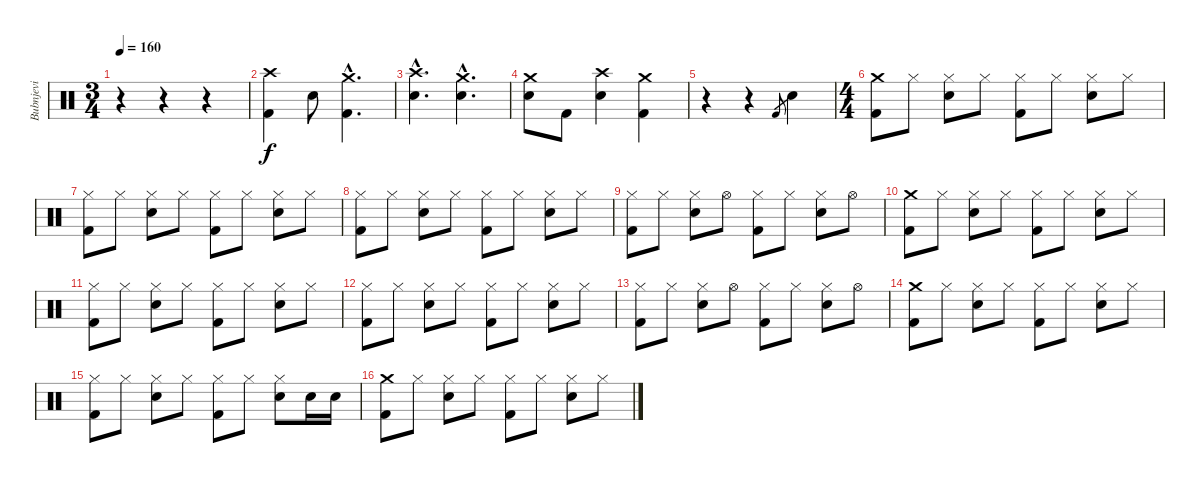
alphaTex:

\track ("Bubnjevi" "Bubnjevi") {instrument percussion}
\staff {score}
\articulation defaults
\ts (3 4)
\tempo 160
\clef neutral
\ks c
r.4{dy f} r.4 r.4 |
("Crash high (hit)" "Kick (hit) 2").4 "Snare (hit) 2".8 ("Crash medium (hit)"{hac} "Kick (hit) 2"{hac}).4{d} |
("Crash high (hit)"{hac} "Snare (hit) 2"{hac}).4{d} ("Crash medium (hit)"{hac} "Snare (hit) 2"{hac}).4{d} |
("Crash medium (hit)" "Snare (hit) 2").8 "Kick (hit) 2".8 ("Crash high (hit)" "Snare (hit) 2").4 ("Crash medium (hit)" "Kick (hit) 2").4 |
r.4 r.4 "Kick (hit) 2".8{gr} "Snare (hit) 2".4 |
\ts (4 4)
("Crash medium (hit)" "Kick (hit) 2").8 "Hi-Hat (closed)".8 ("Hi-Hat (closed)" "Snare (hit) 2").8 "Hi-Hat (closed)".8 ("Hi-Hat (closed)" "Kick (hit) 2").8 "Hi-Hat (closed)".8 ("Hi-Hat (closed)" "Snare (hit) 2").8 "Hi-Hat (closed)".8 |
("Hi-Hat (closed)" "Kick (hit) 2").8 "Hi-Hat (closed)".8 ("Hi-Hat (closed)" "Snare (hit) 2").8 "Hi-Hat (closed)".8 ("Hi-Hat (closed)" "Kick (hit) 2").8 "Hi-Hat (closed)".8 ("Hi-Hat (closed)" "Snare (hit) 2").8 "Hi-Hat (closed)".8 |
("Hi-Hat (closed)" "Kick (hit) 2").8 "Hi-Hat (closed)".8 ("Hi-Hat (closed)" "Snare (hit) 2").8 "Hi-Hat (closed)".8 ("Hi-Hat (closed)" "Kick (hit) 2").8 "Hi-Hat (closed)".8 ("Hi-Hat (closed)" "Snare (hit) 2").8 "Hi-Hat (closed)".8 |
("Hi-Hat (closed)" "Kick (hit) 2").8 "Hi-Hat (closed)".8 ("Hi-Hat (closed)" "Snare (hit) 2").8 "Hi-Hat (open)".8 ("Hi-Hat (closed)" "Kick (hit) 2").8 "Hi-Hat (closed)".8 ("Hi-Hat (closed)" "Snare (hit) 2").8 "Hi-Hat (open)".8 |
("Crash medium (hit)" "Kick (hit) 2").8 "Hi-Hat (closed)".8 ("Hi-Hat (closed)" "Snare (hit) 2").8 "Hi-Hat (closed)".8 ("Hi-Hat (closed)" "Kick (hit) 2").8 "Hi-Hat (closed)".8 ("Hi-Hat (closed)" "Snare (hit) 2").8 "Hi-Hat (closed)".8 |
("Hi-Hat (closed)" "Kick (hit) 2").8 "Hi-Hat (closed)".8 ("Hi-Hat (closed)" "Snare (hit) 2").8 "Hi-Hat (closed)".8 ("Hi-Hat (closed)" "Kick (hit) 2").8 "Hi-Hat (closed)".8 ("Hi-Hat (closed)" "Snare (hit) 2").8 "Hi-Hat (closed)".8 |
("Hi-Hat (closed)" "Kick (hit) 2").8 "Hi-Hat (closed)".8 ("Hi-Hat (closed)" "Snare (hit) 2").8 "Hi-Hat (closed)".8 ("Hi-Hat (closed)" "Kick (hit) 2").8 "Hi-Hat (closed)".8 ("Hi-Hat (closed)" "Snare (hit) 2").8 "Hi-Hat (closed)".8 |
("Hi-Hat (closed)" "Kick (hit) 2").8 "Hi-Hat (closed)".8 ("Hi-Hat (closed)" "Snare (hit) 2").8 "Hi-Hat (open)".8 ("Hi-Hat (closed)" "Kick (hit) 2").8 "Hi-Hat (closed)".8 ("Hi-Hat (closed)" "Snare (hit) 2").8 "Hi-Hat (open)".8 |
("Crash medium (hit)" "Kick (hit) 2").8 "Hi-Hat (closed)".8 ("Hi-Hat (closed)" "Snare (hit) 2").8 "Hi-Hat (closed)".8 ("Hi-Hat (closed)" "Kick (hit) 2").8 "Hi-Hat (closed)".8 ("Hi-Hat (closed)" "Snare (hit) 2").8 "Hi-Hat (closed)".8 |
("Hi-Hat (closed)" "Kick (hit) 2").8 "Hi-Hat (closed)".8 ("Hi-Hat (closed)" "Snare (hit) 2").8 "Hi-Hat (closed)".8 ("Hi-Hat (closed)" "Kick (hit) 2").8 "Hi-Hat (closed)".8 ("Hi-Hat (closed)" "Snare (hit) 2").8 "Snare (hit) 2".16 "Snare (hit) 2".16 |
("Crash medium (hit)" "Kick (hit) 2").8 "Hi-Hat (closed)".8 ("Hi-Hat (closed)" "Snare (hit) 2").8 "Hi-Hat (closed)".8 ("Hi-Hat (closed)" "Kick (hit) 2").8 "Hi-Hat (closed)".8 ("Hi-Hat (closed)" "Snare (hit) 2").8 "Hi-Hat (closed)".8
